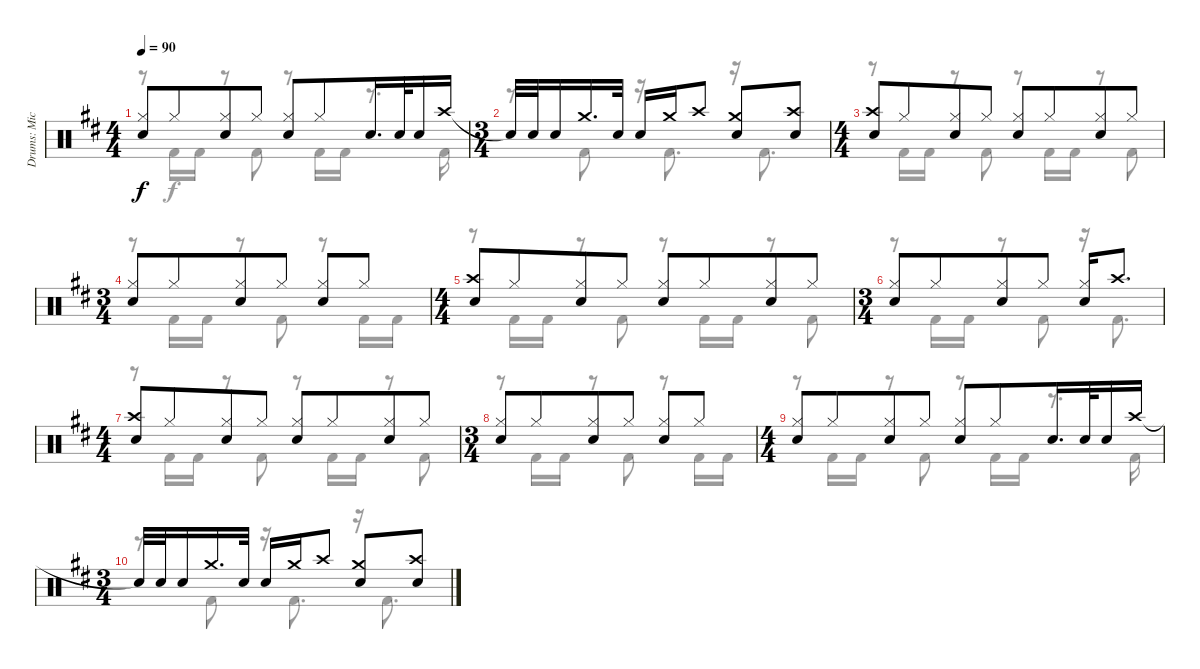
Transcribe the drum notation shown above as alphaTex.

\track ("Drums: Mick" "Drums: Mic") {instrument percussion}
\staff {score}
\articulation defaults
\voice
\ts (4 4)
\tempo 90
\clef neutral
\ks d
("Hi-Hat (closed)" "Snare (hit) 2").8{dy f} "Hi-Hat (closed)".8{beam merge} ("Hi-Hat (closed)" "Snare (hit) 2").8 "Hi-Hat (closed)".8 ("Hi-Hat (closed)" "Snare (hit) 2").8 "Hi-Hat (closed)".8{beam merge} "Snare (hit) 2".16{d volume 8} "Snare (hit) 2".32 "Snare (hit) 2".16 "Crash high (hit)".16 |
\ts (3 4)
"Snare (hit)"{t}.32{beam merge} "Snare (hit) 2".32 "Snare (hit) 2".16 "Crash medium (hit)".16{d} "Snare (hit) 2".32 "Snare (hit) 2".16 "Crash medium (hit)".16 "Crash high (hit)".8 ("Crash medium (hit)" "Snare (hit) 2").8 ("Crash high (hit)" "Snare (hit) 2").8 |
\ts (4 4)
("Crash high (hit)" "Snare (hit) 2").8 "Hi-Hat (closed)".8{beam merge} ("Hi-Hat (closed)" "Snare (hit) 2").8 "Hi-Hat (closed)".8 ("Hi-Hat (closed)" "Snare (hit) 2").8 "Hi-Hat (closed)".8{beam merge} ("Hi-Hat (closed)" "Snare (hit) 2").8 "Hi-Hat (closed)".8 |
\ts (3 4)
("Hi-Hat (closed)" "Snare (hit) 2").8 "Hi-Hat (closed)".8{beam merge} ("Hi-Hat (closed)" "Snare (hit) 2").8 "Hi-Hat (closed)".8 ("Hi-Hat (closed)" "Snare (hit) 2").8 "Hi-Hat (closed)".8 |
\ts (4 4)
("Crash high (hit)" "Snare (hit) 2").8 "Hi-Hat (closed)".8{beam merge} ("Hi-Hat (closed)" "Snare (hit) 2").8 "Hi-Hat (closed)".8 ("Hi-Hat (closed)" "Snare (hit) 2").8 "Hi-Hat (closed)".8{beam merge} ("Hi-Hat (closed)" "Snare (hit) 2").8 "Hi-Hat (closed)".8 |
\ts (3 4)
("Hi-Hat (closed)" "Snare (hit) 2").8 "Hi-Hat (closed)".8{beam merge} ("Hi-Hat (closed)" "Snare (hit) 2").8{volume 0} "Hi-Hat (closed)".8 ("Hi-Hat (closed)" "Snare (hit) 2").16 "Crash high (hit)".8{d} |
\ts (4 4)
("Crash high (hit)" "Snare (hit) 2").8 "Hi-Hat (closed)".8{beam merge} ("Hi-Hat (closed)" "Snare (hit) 2").8 "Hi-Hat (closed)".8 ("Hi-Hat (closed)" "Snare (hit) 2").8 "Hi-Hat (closed)".8{beam merge} ("Hi-Hat (closed)" "Snare (hit) 2").8 "Hi-Hat (closed)".8 |
\ts (3 4)
("Hi-Hat (closed)" "Snare (hit) 2").8 "Hi-Hat (closed)".8{beam merge} ("Hi-Hat (closed)" "Snare (hit) 2").8 "Hi-Hat (closed)".8 ("Hi-Hat (closed)" "Snare (hit) 2").8 "Hi-Hat (closed)".8 |
\ts (4 4)
("Hi-Hat (closed)" "Snare (hit) 2").8 "Hi-Hat (closed)".8{beam merge} ("Hi-Hat (closed)" "Snare (hit) 2").8 "Hi-Hat (closed)".8 ("Hi-Hat (closed)" "Snare (hit) 2").8 "Hi-Hat (closed)".8{beam merge} "Snare (hit) 2".16{d} "Snare (hit) 2".32 "Snare (hit) 2".16 "Crash high (hit)".16 |
\ts (3 4)
"Snare (hit)"{t}.32{beam merge} "Snare (hit) 2".32 "Snare (hit) 2".16 "Crash medium (hit)".16{d} "Snare (hit) 2".32 "Snare (hit) 2".16 "Crash medium (hit)".16 "Crash high (hit)".8 ("Crash medium (hit)" "Snare (hit) 2").8 ("Crash high (hit)" "Snare (hit) 2").8
\voice
\clef neutral
\ottava regular
\simile none
\ks d
r.8{dy f} "Kick (hit) 2".16 "Kick (hit) 2".16 r.8 "Kick (hit) 2".8 r.8 "Kick (hit) 2".16 "Kick (hit) 2".16 r.8{d} "Kick (hit) 2".16 |
r.8 "Kick (hit) 2".8 r.16 "Kick (hit) 2".8{d} r.16 "Kick (hit) 2".8{d} |
r.8 "Kick (hit) 2".16 "Kick (hit) 2".16 r.8 "Kick (hit) 2".8 r.8 "Kick (hit) 2".16 "Kick (hit) 2".16 r.8 "Kick (hit) 2".8 |
r.8 "Kick (hit) 2".16 "Kick (hit) 2".16 r.8 "Kick (hit) 2".8 r.8 "Kick (hit) 2".16 "Kick (hit) 2".16 |
r.8 "Kick (hit) 2".16 "Kick (hit) 2".16 r.8 "Kick (hit) 2".8 r.8 "Kick (hit) 2".16 "Kick (hit) 2".16 r.8 "Kick (hit) 2".8 |
r.8 "Kick (hit) 2".16 "Kick (hit) 2".16 r.8 "Kick (hit) 2".8 r.16 "Kick (hit) 2".8{d} |
r.8 "Kick (hit) 2".16 "Kick (hit) 2".16 r.8 "Kick (hit) 2".8 r.8 "Kick (hit) 2".16 "Kick (hit) 2".16 r.8 "Kick (hit) 2".8 |
r.8 "Kick (hit) 2".16 "Kick (hit) 2".16 r.8 "Kick (hit) 2".8 r.8 "Kick (hit) 2".16 "Kick (hit) 2".16 |
r.8 "Kick (hit) 2".16 "Kick (hit) 2".16 r.8 "Kick (hit) 2".8 r.8 "Kick (hit) 2".16 "Kick (hit) 2".16 r.8{d} "Kick (hit) 2".16 |
r.8 "Kick (hit) 2".8 r.16 "Kick (hit) 2".8{d} r.16 "Kick (hit) 2".8{d}
